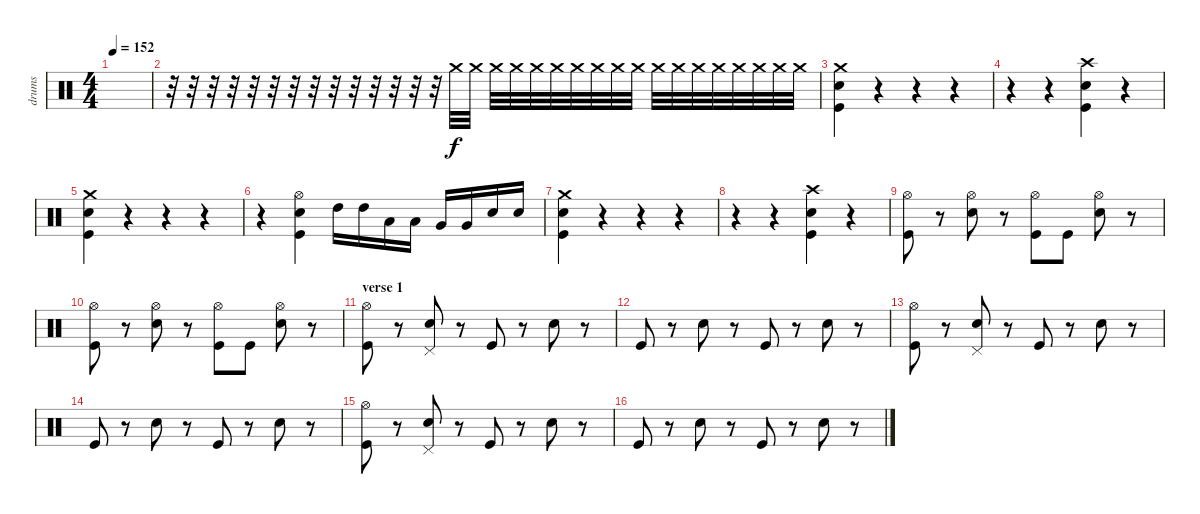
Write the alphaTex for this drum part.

\track ("drums" "drums") {instrument percussion}
\staff {score}
\articulation defaults
\ts (4 4)
\tempo 152
\clef neutral
\ks c
|
r.32 r.32 r.32 r.32 r.32 r.32 r.32 r.32 r.32 r.32 r.32 r.32 r.32 r.32{volume 12} "Crash medium (hit)".32 "Crash medium (hit)".32 "Crash medium (hit)".32 "Crash medium (hit)".32 "Crash medium (hit)".32 "Crash medium (hit)".32 "Crash medium (hit)".32 "Crash medium (hit)".32 "Crash medium (hit)".32 "Crash medium (hit)".32 "Crash medium (hit)".32 "Crash medium (hit)".32 "Crash medium (hit)".32 "Crash medium (hit)".32 "Crash medium (hit)".32 "Crash medium (hit)".32 "Crash medium (hit)".32 "Crash medium (hit)".32 |
("Crash medium (hit)" "Snare (hit) 2" "Kick (hit)").4 r.4 r.4 r.4 |
r.4 r.4 ("Crash high (hit)" "Snare (hit) 2" "Kick (hit)").4 r.4 |
("Crash medium (hit)" "Snare (hit) 2" "Kick (hit)").4 r.4 r.4 r.4 |
r.4 ("Hi-Hat (open)" "Snare (hit) 2" "Kick (hit)").4 "High Tom (hit)".16 "High Tom (hit)".16 "Low Tom (hit)".16 "Low Tom (hit)".16 "Very Low Tom (hit)".16 "Very Low Tom (hit)".16 "Snare (hit) 2".16 "Snare (hit) 2".16 |
("Crash medium (hit)" "Snare (hit) 2" "Kick (hit)").4 r.4 r.4 r.4 |
r.4 r.4 ("Crash high (hit)" "Snare (hit) 2" "Kick (hit)").4 r.4 |
("Hi-Hat (open)" "Kick (hit)").8 r.8 ("Hi-Hat (open)" "Snare (hit) 2").8 r.8 ("Hi-Hat (open)" "Kick (hit)").8 "Kick (hit)".8 ("Hi-Hat (open)" "Snare (hit) 2").8 r.8 |
("Hi-Hat (open)" "Kick (hit)").8 r.8 ("Hi-Hat (open)" "Snare (hit) 2").8 r.8 ("Hi-Hat (open)" "Kick (hit)").8 "Kick (hit)".8 ("Hi-Hat (open)" "Snare (hit) 2").8 r.8 |
\section ("" "verse 1")
("Hi-Hat (open)" "Kick (hit)").8 r.8 ("Pedal Hi-Hat (hit)" "Snare (hit) 2").8 r.8 "Kick (hit)".8 r.8 "Snare (hit) 2".8 r.8 |
"Kick (hit)".8 r.8 "Snare (hit) 2".8 r.8 "Kick (hit)".8 r.8 "Snare (hit) 2".8 r.8 |
("Hi-Hat (open)" "Kick (hit)").8 r.8 ("Pedal Hi-Hat (hit)" "Snare (hit) 2").8 r.8 "Kick (hit)".8 r.8 "Snare (hit) 2".8 r.8 |
"Kick (hit)".8 r.8 "Snare (hit) 2".8 r.8 "Kick (hit)".8 r.8 "Snare (hit) 2".8 r.8 |
("Hi-Hat (open)" "Kick (hit)").8 r.8 ("Pedal Hi-Hat (hit)" "Snare (hit) 2").8 r.8 "Kick (hit)".8 r.8 "Snare (hit) 2".8 r.8 |
"Kick (hit)".8 r.8 "Snare (hit) 2".8 r.8 "Kick (hit)".8 r.8 "Snare (hit) 2".8 r.8
